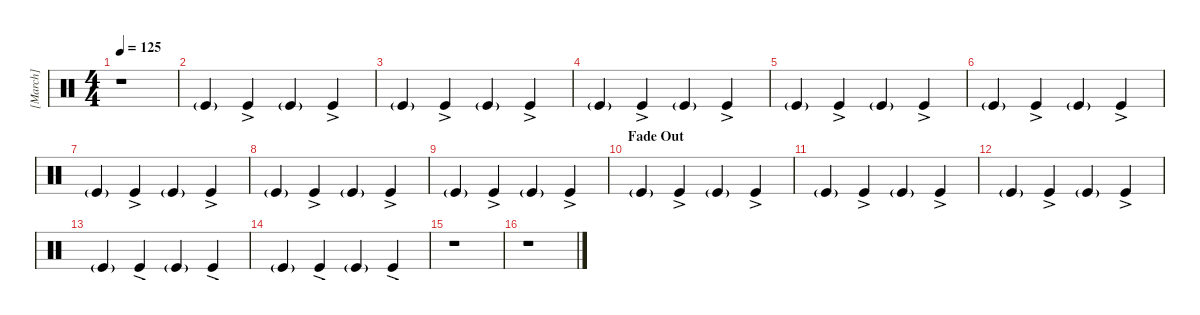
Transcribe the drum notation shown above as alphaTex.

\hideDynamics
\bracketExtendMode groupsimilarinstruments
\firstSystemTrackNameMode fullname
\otherSystemsTrackNameMode fullname
\otherSystemsTrackNameOrientation horizontal
\track ("[March]" "H-Clap") {instrument percussion}
\staff {score}
\articulation defaults
\ts (4 4)
\tempo 125
\clef neutral
\ks c
r.1{dy mf} |
"Kick (hit)"{g}.4 "Kick (hit)"{ac}.4 "Kick (hit)"{g}.4 "Kick (hit)"{ac}.4 |
"Kick (hit)"{g}.4 "Kick (hit)"{ac}.4 "Kick (hit)"{g}.4 "Kick (hit)"{ac}.4 |
"Kick (hit)"{g}.4 "Kick (hit)"{ac}.4 "Kick (hit)"{g}.4 "Kick (hit)"{ac}.4 |
\scale
0.352941 "Kick (hit)"{g}.4 "Kick (hit)"{ac}.4 "Kick (hit)"{g}.4 "Kick (hit)"{ac}.4 |
\scale
0.272727 "Kick (hit)"{g}.4 "Kick (hit)"{ac}.4 "Kick (hit)"{g}.4 "Kick (hit)"{ac}.4 |
"Kick (hit)"{g}.4 "Kick (hit)"{ac}.4 "Kick (hit)"{g}.4 "Kick (hit)"{ac}.4 |
"Kick (hit)"{g}.4 "Kick (hit)"{ac}.4 "Kick (hit)"{g}.4 "Kick (hit)"{ac}.4 |
\scale
0.363636 "Kick (hit)"{g}.4 "Kick (hit)"{ac}.4 "Kick (hit)"{g}.4 "Kick (hit)"{ac}.4 |
\section ("" "Fade Out")
\scale
0.363636 "Kick (hit)"{g}.4 "Kick (hit)"{ac}.4 "Kick (hit)"{g}.4 "Kick (hit)"{ac}.4 |
"Kick (hit)"{g}.4 "Kick (hit)"{ac}.4 "Kick (hit)"{g}.4 "Kick (hit)"{ac}.4 |
"Kick (hit)"{g}.4 "Kick (hit)"{ac}.4 "Kick (hit)"{g}.4 "Kick (hit)"{ac}.4 |
"Kick (hit)"{g}.4 "Kick (hit)"{ac}.4 "Kick (hit)"{g}.4 "Kick (hit)"{ac}.4 |
"Kick (hit)"{g}.4 "Kick (hit)"{ac}.4 "Kick (hit)"{g}.4 "Kick (hit)"{ac}.4 |
r.1 |
r.1
